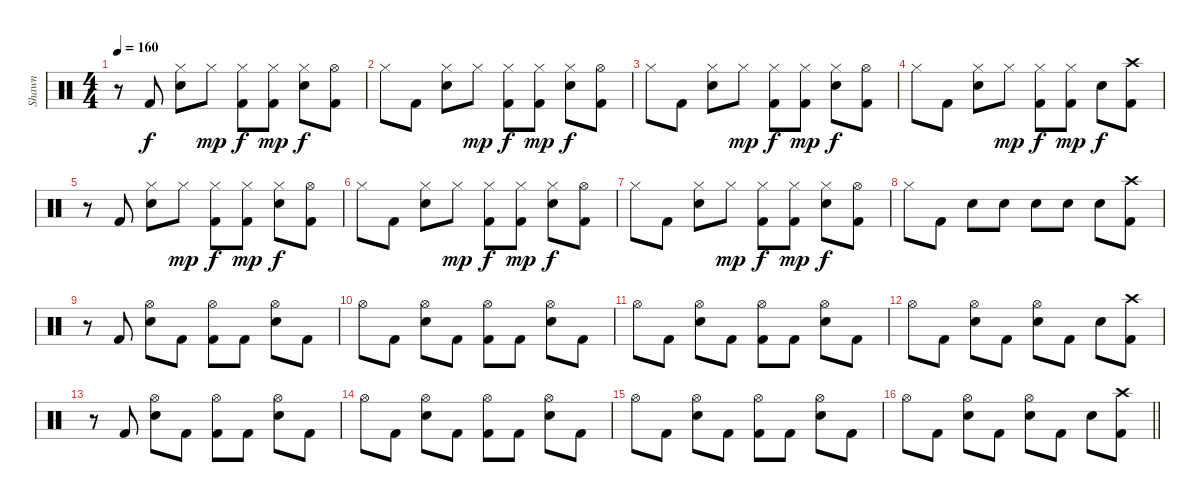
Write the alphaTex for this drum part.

\track ("Shawn" "Shawn") {instrument percussion}
\staff {score}
\articulation defaults
\ts (4 4)
\tempo 160
\clef neutral
\ks c
r.8{dy f} "Kick (hit) 2".8 ("Hi-Hat (closed)" "Snare (hit) 2").8 "Hi-Hat (closed)".8{dy mp} ("Hi-Hat (closed)" "Kick (hit) 2").8{dy f} ("Hi-Hat (closed)" "Kick (hit) 2").8{dy mp} ("Hi-Hat (closed)" "Snare (hit) 2").8{dy f} ("Hi-Hat (open)" "Kick (hit) 2").8 |
"Hi-Hat (closed)".8 "Kick (hit) 2".8 ("Hi-Hat (closed)" "Snare (hit) 2").8 "Hi-Hat (closed)".8{dy mp} ("Hi-Hat (closed)" "Kick (hit) 2").8{dy f} ("Hi-Hat (closed)" "Kick (hit) 2").8{dy mp} ("Hi-Hat (closed)" "Snare (hit) 2").8{dy f} ("Hi-Hat (open)" "Kick (hit) 2").8 |
"Hi-Hat (closed)".8 "Kick (hit) 2".8 ("Hi-Hat (closed)" "Snare (hit) 2").8 "Hi-Hat (closed)".8{dy mp} ("Hi-Hat (closed)" "Kick (hit) 2").8{dy f} ("Hi-Hat (closed)" "Kick (hit) 2").8{dy mp} ("Hi-Hat (closed)" "Snare (hit) 2").8{dy f} ("Hi-Hat (open)" "Kick (hit) 2").8 |
"Hi-Hat (closed)".8 "Kick (hit) 2".8 ("Hi-Hat (closed)" "Snare (hit) 2").8 "Hi-Hat (closed)".8{dy mp} ("Hi-Hat (closed)" "Kick (hit) 2").8{dy f} ("Hi-Hat (closed)" "Kick (hit) 2").8{dy mp} "Snare (hit) 2".8{dy f} ("Crash high (hit)" "Kick (hit) 2").8 |
r.8 "Kick (hit) 2".8 ("Hi-Hat (closed)" "Snare (hit) 2").8 "Hi-Hat (closed)".8{dy mp} ("Hi-Hat (closed)" "Kick (hit) 2").8{dy f} ("Hi-Hat (closed)" "Kick (hit) 2").8{dy mp} ("Hi-Hat (closed)" "Snare (hit) 2").8{dy f} ("Hi-Hat (open)" "Kick (hit) 2").8 |
"Hi-Hat (closed)".8 "Kick (hit) 2".8 ("Hi-Hat (closed)" "Snare (hit) 2").8 "Hi-Hat (closed)".8{dy mp} ("Hi-Hat (closed)" "Kick (hit) 2").8{dy f} ("Hi-Hat (closed)" "Kick (hit) 2").8{dy mp} ("Hi-Hat (closed)" "Snare (hit) 2").8{dy f} ("Hi-Hat (open)" "Kick (hit) 2").8 |
"Hi-Hat (closed)".8 "Kick (hit) 2".8 ("Hi-Hat (closed)" "Snare (hit) 2").8 "Hi-Hat (closed)".8{dy mp} ("Hi-Hat (closed)" "Kick (hit) 2").8{dy f} ("Hi-Hat (closed)" "Kick (hit) 2").8{dy mp} ("Hi-Hat (closed)" "Snare (hit) 2").8{dy f} ("Hi-Hat (open)" "Kick (hit) 2").8 |
"Hi-Hat (closed)".8 "Kick (hit) 2".8 "Snare (hit) 2".8 "Snare (hit) 2".8 "Snare (hit) 2".8 "Snare (hit) 2".8 "Snare (hit) 2".8 ("Crash high (hit)" "Kick (hit) 2").8 |
r.8 "Kick (hit) 2".8 ("Hi-Hat (open)" "Snare (hit) 2").8 "Kick (hit) 2".8 ("Hi-Hat (open)" "Kick (hit) 2").8 "Kick (hit) 2".8 ("Hi-Hat (open)" "Snare (hit) 2").8 "Kick (hit) 2".8 |
"Hi-Hat (open)".8 "Kick (hit) 2".8 ("Hi-Hat (open)" "Snare (hit) 2").8 "Kick (hit) 2".8 ("Hi-Hat (open)" "Kick (hit) 2").8 "Kick (hit) 2".8 ("Hi-Hat (open)" "Snare (hit) 2").8 "Kick (hit) 2".8 |
"Hi-Hat (open)".8 "Kick (hit) 2".8 ("Hi-Hat (open)" "Snare (hit) 2").8 "Kick (hit) 2".8 ("Hi-Hat (open)" "Kick (hit) 2").8 "Kick (hit) 2".8 ("Hi-Hat (open)" "Snare (hit) 2").8 "Kick (hit) 2".8 |
"Hi-Hat (open)".8 "Kick (hit) 2".8 ("Hi-Hat (open)" "Snare (hit) 2").8 "Kick (hit) 2".8 ("Hi-Hat (open)" "Snare (hit) 2").8 "Kick (hit) 2".8 "Snare (hit) 2".8 ("Crash high (hit)" "Kick (hit) 2").8 |
r.8 "Kick (hit) 2".8 ("Hi-Hat (open)" "Snare (hit) 2").8 "Kick (hit) 2".8 ("Hi-Hat (open)" "Kick (hit) 2").8 "Kick (hit) 2".8 ("Hi-Hat (open)" "Snare (hit) 2").8 "Kick (hit) 2".8 |
"Hi-Hat (open)".8 "Kick (hit) 2".8 ("Hi-Hat (open)" "Snare (hit) 2").8 "Kick (hit) 2".8 ("Hi-Hat (open)" "Kick (hit) 2").8 "Kick (hit) 2".8 ("Hi-Hat (open)" "Snare (hit) 2").8 "Kick (hit) 2".8 |
"Hi-Hat (open)".8 "Kick (hit) 2".8 ("Hi-Hat (open)" "Snare (hit) 2").8 "Kick (hit) 2".8 ("Hi-Hat (open)" "Kick (hit) 2").8 "Kick (hit) 2".8 ("Hi-Hat (open)" "Snare (hit) 2").8 "Kick (hit) 2".8 |
\barLineRight lightlight "Hi-Hat (open)".8 "Kick (hit) 2".8
("Hi-Hat (open)" "Snare (hit) 2").8 "Kick (hit) 2".8 ("Hi-Hat (open)" "Snare (hit) 2").8 "Kick (hit) 2".8 "Snare (hit) 2".8 ("Crash high (hit)" "Kick (hit) 2").8
